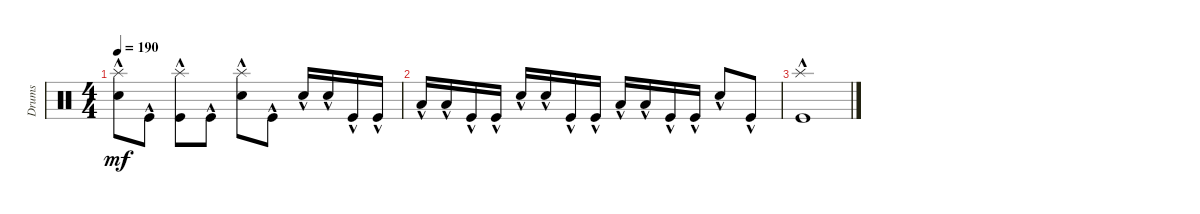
\track ("Drums" "Drums") {instrument percussion}
\staff {score}
\articulation defaults
\ts (4 4)
\tempo 190
\clef neutral
\ks c
("Snare (hit) 2"{hac} "Splash (hit)"{hac}).8{dy mf} "Kick (hit)"{hac}.8 ("Kick (hit)"{hac} "Splash (hit)"{hac}).8 "Kick (hit)"{hac}.8 ("Snare (hit) 2"{hac} "Splash (hit)"{hac}).8 "Kick (hit)"{hac}.8 "Snare (hit) 2"{hac}.16 "Snare (hit) 2"{hac}.16 "Kick (hit)"{hac}.16 "Kick (hit)"{hac}.16 |
"Low Tom (hit)"{hac}.16 "Low Tom (hit)"{hac}.16 "Kick (hit)"{hac}.16 "Kick (hit)"{hac}.16 "Snare (hit) 2"{hac}.16 "Snare (hit) 2"{hac}.16 "Kick (hit)"{hac}.16 "Kick (hit)"{hac}.16 "Low Tom (hit)"{hac}.16 "Low Tom (hit)"{hac}.16 "Kick (hit)"{hac}.16 "Kick (hit)"{hac}.16 "Snare (hit) 2"{hac}.8 "Kick (hit)"{hac}.8 |
("Kick (hit)"{hac} "Splash (hit)"{hac}).1
